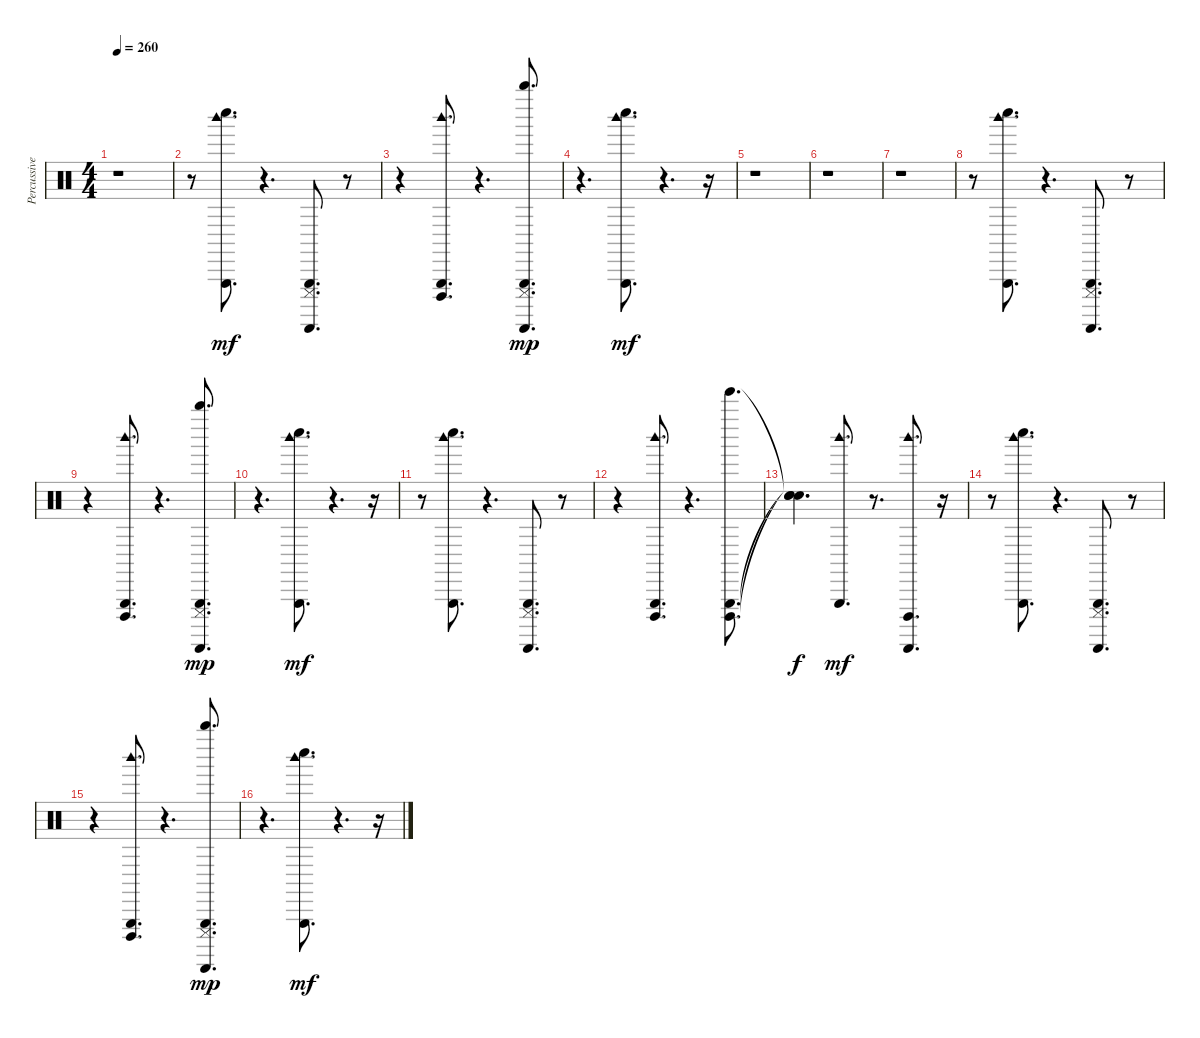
\track ("Percussive Organ" "Percussive") {instrument percussion}
\staff {score}
\articulation defaults
\ts (4 4)
\tempo 260
\clef neutral
\ks c
r.1{dy f} |
r.8 ("Whistle low (hit)" "Triangle (hit)" "Woodblock high (hit)").8{d dy mf} r.4{d} ("Guiro (scrap-return)" "Triangle (hit)" "Cuica (mute)").8{d} r.8 |
r.4 ("Woodblock high (hit)" "Triangle (hit)" "Cuica (open)").8{d} r.4{d} ("Whistle high (hit)" "Triangle (hit)" "Cuica (mute)" "Guiro (scrap-return)").8{d dy mp} |
r.4{d} ("Whistle low (hit)" "Triangle (hit)" "Woodblock high (hit)").8{d dy mf} r.4{d} r.16 |
r.1 |
r.1 |
r.1 |
r.8 ("Whistle low (hit)" "Triangle (hit)" "Woodblock high (hit)").8{d} r.4{d} ("Guiro (scrap-return)" "Triangle (hit)" "Cuica (mute)").8{d} r.8 |
r.4 ("Woodblock high (hit)" "Triangle (hit)" "Cuica (open)").8{d} r.4{d} ("Whistle high (hit)" "Triangle (hit)" "Cuica (mute)" "Guiro (scrap-return)").8{d dy mp} |
r.4{d} ("Whistle low (hit)" "Triangle (hit)" "Woodblock high (hit)").8{d dy mf} r.4{d} r.16 |
r.8 ("Whistle low (hit)" "Triangle (hit)" "Woodblock high (hit)").8{d} r.4{d} ("Guiro (scrap-return)" "Triangle (hit)" "Cuica (mute)").8{d} r.8 |
r.4 ("Woodblock high (hit)" "Triangle (hit)" "Cuica (open)").8{d} r.4{d} ("Cuica (open)" "Tinkle Bell (hit)" "Triangle (hit)").8{d} |
("Snare (hit)"{t} "Snare (hit)"{t} "Snare (hit)"{t}).4{d dy f} ("Woodblock high (hit)" "Triangle (hit)").8{d dy mf} r.8{d} ("Guiro (scrap-return)" "Cuica (open)" "Woodblock high (hit)").8{d} r.16 |
r.8 ("Whistle low (hit)" "Triangle (hit)" "Woodblock high (hit)").8{d} r.4{d} ("Guiro (scrap-return)" "Triangle (hit)" "Cuica (mute)").8{d} r.8 |
r.4 ("Woodblock high (hit)" "Triangle (hit)" "Cuica (open)").8{d} r.4{d} ("Whistle high (hit)" "Triangle (hit)" "Cuica (mute)" "Guiro (scrap-return)").8{d dy mp} |
r.4{d} ("Whistle low (hit)" "Triangle (hit)" "Woodblock high (hit)").8{d dy mf} r.4{d} r.16
